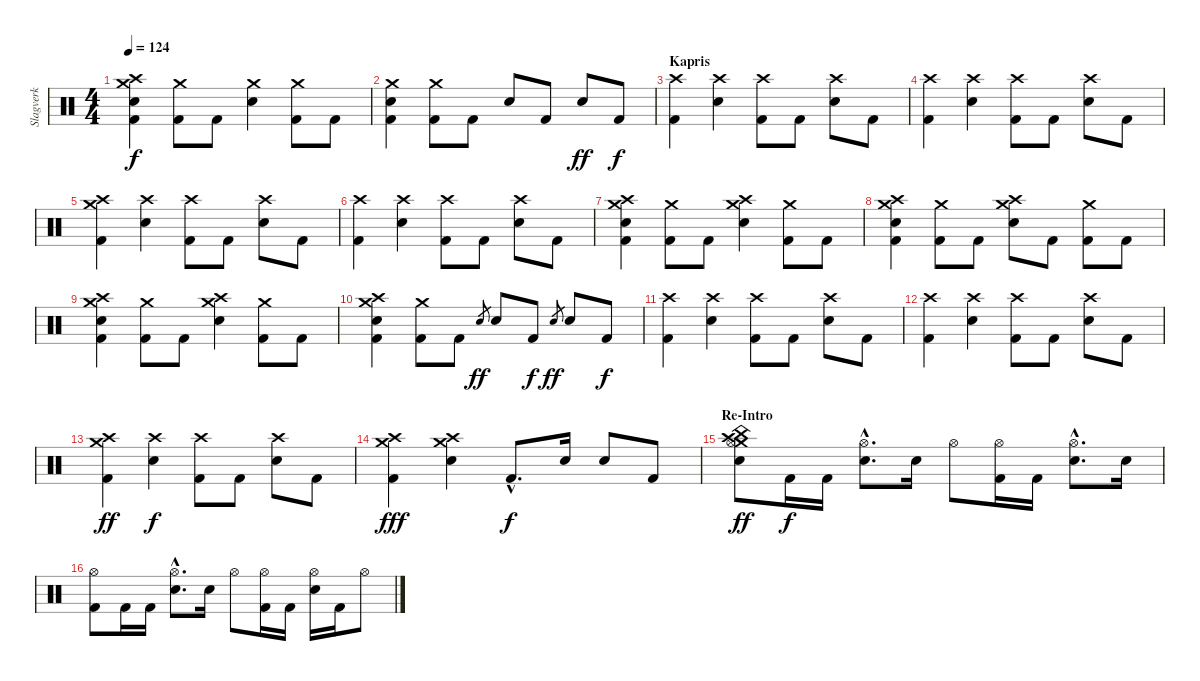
\track ("Slagverk" "Slagverk") {instrument percussion}
\staff {score}
\articulation defaults
\ts (4 4)
\section ("" "")
\tempo 124
\clef neutral
\ks c
("Crash medium (hit)" "Crash high (hit)" "Electric Snare (hit)" "Kick (hit) 2").4{dy f} ("Crash medium (hit)" "Kick (hit) 2").8 "Kick (hit) 2".8 ("Crash medium (hit)" "Electric Snare (hit)").4 ("Crash medium (hit)" "Kick (hit) 2").8 "Kick (hit) 2".8 |
("Crash medium (hit)" "Electric Snare (hit)" "Kick (hit) 2").4 ("Crash medium (hit)" "Kick (hit) 2").8 "Kick (hit) 2".8 "Electric Snare (hit)".8 "Kick (hit) 2".8 "Electric Snare (hit)".8{dy ff} "Kick (hit) 2".8{dy f} |
\section ("" "Kapris")
("Crash high (hit)" "Kick (hit) 2").4 ("Crash high (hit)" "Electric Snare (hit)").4 ("Crash high (hit)" "Kick (hit) 2").8 "Kick (hit) 2".8 ("Crash high (hit)" "Electric Snare (hit)").8 "Kick (hit) 2".8 |
("Crash high (hit)" "Kick (hit) 2").4 ("Crash high (hit)" "Electric Snare (hit)").4 ("Crash high (hit)" "Kick (hit) 2").8 "Kick (hit) 2".8 ("Crash high (hit)" "Electric Snare (hit)").8 "Kick (hit) 2".8 |
("Crash high (hit)" "Crash medium (hit)" "Kick (hit) 2").4 ("Crash high (hit)" "Electric Snare (hit)").4 ("Crash high (hit)" "Kick (hit) 2").8 "Kick (hit) 2".8 ("Crash high (hit)" "Electric Snare (hit)").8 "Kick (hit) 2".8 |
("Crash high (hit)" "Kick (hit) 2").4 ("Crash high (hit)" "Electric Snare (hit)").4 ("Crash high (hit)" "Kick (hit) 2").8 "Kick (hit) 2".8 ("Crash high (hit)" "Electric Snare (hit)").8 "Kick (hit) 2".8 |
\section ("" "")
("Crash medium (hit)" "Crash high (hit)" "Electric Snare (hit)" "Kick (hit) 2").4 ("Crash medium (hit)" "Kick (hit) 2").8 "Kick (hit) 2".8 ("Crash medium (hit)" "Crash high (hit)" "Electric Snare (hit)").4 ("Crash medium (hit)" "Kick (hit) 2").8 "Kick (hit) 2".8 |
("Crash medium (hit)" "Crash high (hit)" "Electric Snare (hit)" "Kick (hit) 2").4 ("Crash medium (hit)" "Kick (hit) 2").8 "Kick (hit) 2".8 ("Crash medium (hit)" "Crash high (hit)" "Electric Snare (hit)").8 "Kick (hit) 2".8 ("Crash medium (hit)" "Kick (hit) 2").8 "Kick (hit) 2".8 |
("Crash medium (hit)" "Crash high (hit)" "Electric Snare (hit)" "Kick (hit) 2").4 ("Crash medium (hit)" "Kick (hit) 2").8 "Kick (hit) 2".8 ("Crash medium (hit)" "Crash high (hit)" "Electric Snare (hit)").4 ("Crash medium (hit)" "Kick (hit) 2").8 "Kick (hit) 2".8 |
("Crash medium (hit)" "Crash high (hit)" "Electric Snare (hit)" "Kick (hit) 2").4 ("Crash medium (hit)" "Kick (hit) 2").8 "Kick (hit) 2".8 "Electric Snare (hit)".8{gr dy ff} "Electric Snare (hit)".8 "Kick (hit) 2".8{dy f} "Electric Snare (hit)".8{gr dy ff} "Electric Snare (hit)".8 "Kick (hit) 2".8{dy f} |
\section ("" "")
("Crash high (hit)" "Kick (hit) 2").4 ("Crash high (hit)" "Electric Snare (hit)").4 ("Crash high (hit)" "Kick (hit) 2").8 "Kick (hit) 2".8 ("Crash high (hit)" "Electric Snare (hit)").8 "Kick (hit) 2".8 |
("Crash high (hit)" "Kick (hit) 2").4 ("Crash high (hit)" "Electric Snare (hit)").4 ("Crash high (hit)" "Kick (hit) 2").8 "Kick (hit) 2".8 ("Crash high (hit)" "Electric Snare (hit)").8 "Kick (hit) 2".8 |
\section ("" "")
("Crash high (hit)" "Crash medium (hit)" "Kick (hit) 2").4{dy ff} ("Crash high (hit)" "Electric Snare (hit)").4{dy f} ("Crash high (hit)" "Kick (hit) 2").8 "Kick (hit) 2".8 ("Crash high (hit)" "Electric Snare (hit)").8 "Kick (hit) 2".8 |
("Crash high (hit)" "Crash medium (hit)" "Kick (hit) 2").4{dy fff} ("Crash high (hit)" "Crash medium (hit)" "Electric Snare (hit)").4 "Kick (hit) 2"{hac}.8{d dy f} "Electric Snare (hit)".16 "Electric Snare (hit)".8 "Kick (hit) 2".8 |
\section ("" "Re-Intro")
("Crash medium (hit)" "Hi-Hat (open)" "China (hit)" "Crash high (hit)" "Electric Snare (hit)").8{dy ff} "Kick (hit) 2".16{dy f} "Kick (hit) 2".16 ("Hi-Hat (open)"{hac} "Electric Snare (hit)"{hac}).8{d} "Electric Snare (hit)".16 "Hi-Hat (open)".8 ("Hi-Hat (open)" "Kick (hit) 2").16 "Kick (hit) 2".16 ("Hi-Hat (open)"{hac} "Electric Snare (hit)"{hac}).8{d} "Electric Snare (hit)".16 |
("Hi-Hat (open)" "Kick (hit) 2").8 "Kick (hit) 2".16 "Kick (hit) 2".16 ("Hi-Hat (open)"{hac} "Electric Snare (hit)"{hac}).8{d} "Electric Snare (hit)".16 "Hi-Hat (open)".8 ("Hi-Hat (open)" "Kick (hit) 2").16 "Kick (hit) 2".16 ("Hi-Hat (open)" "Electric Snare (hit)").16 "Kick (hit) 2".16 "Hi-Hat (open)".8
